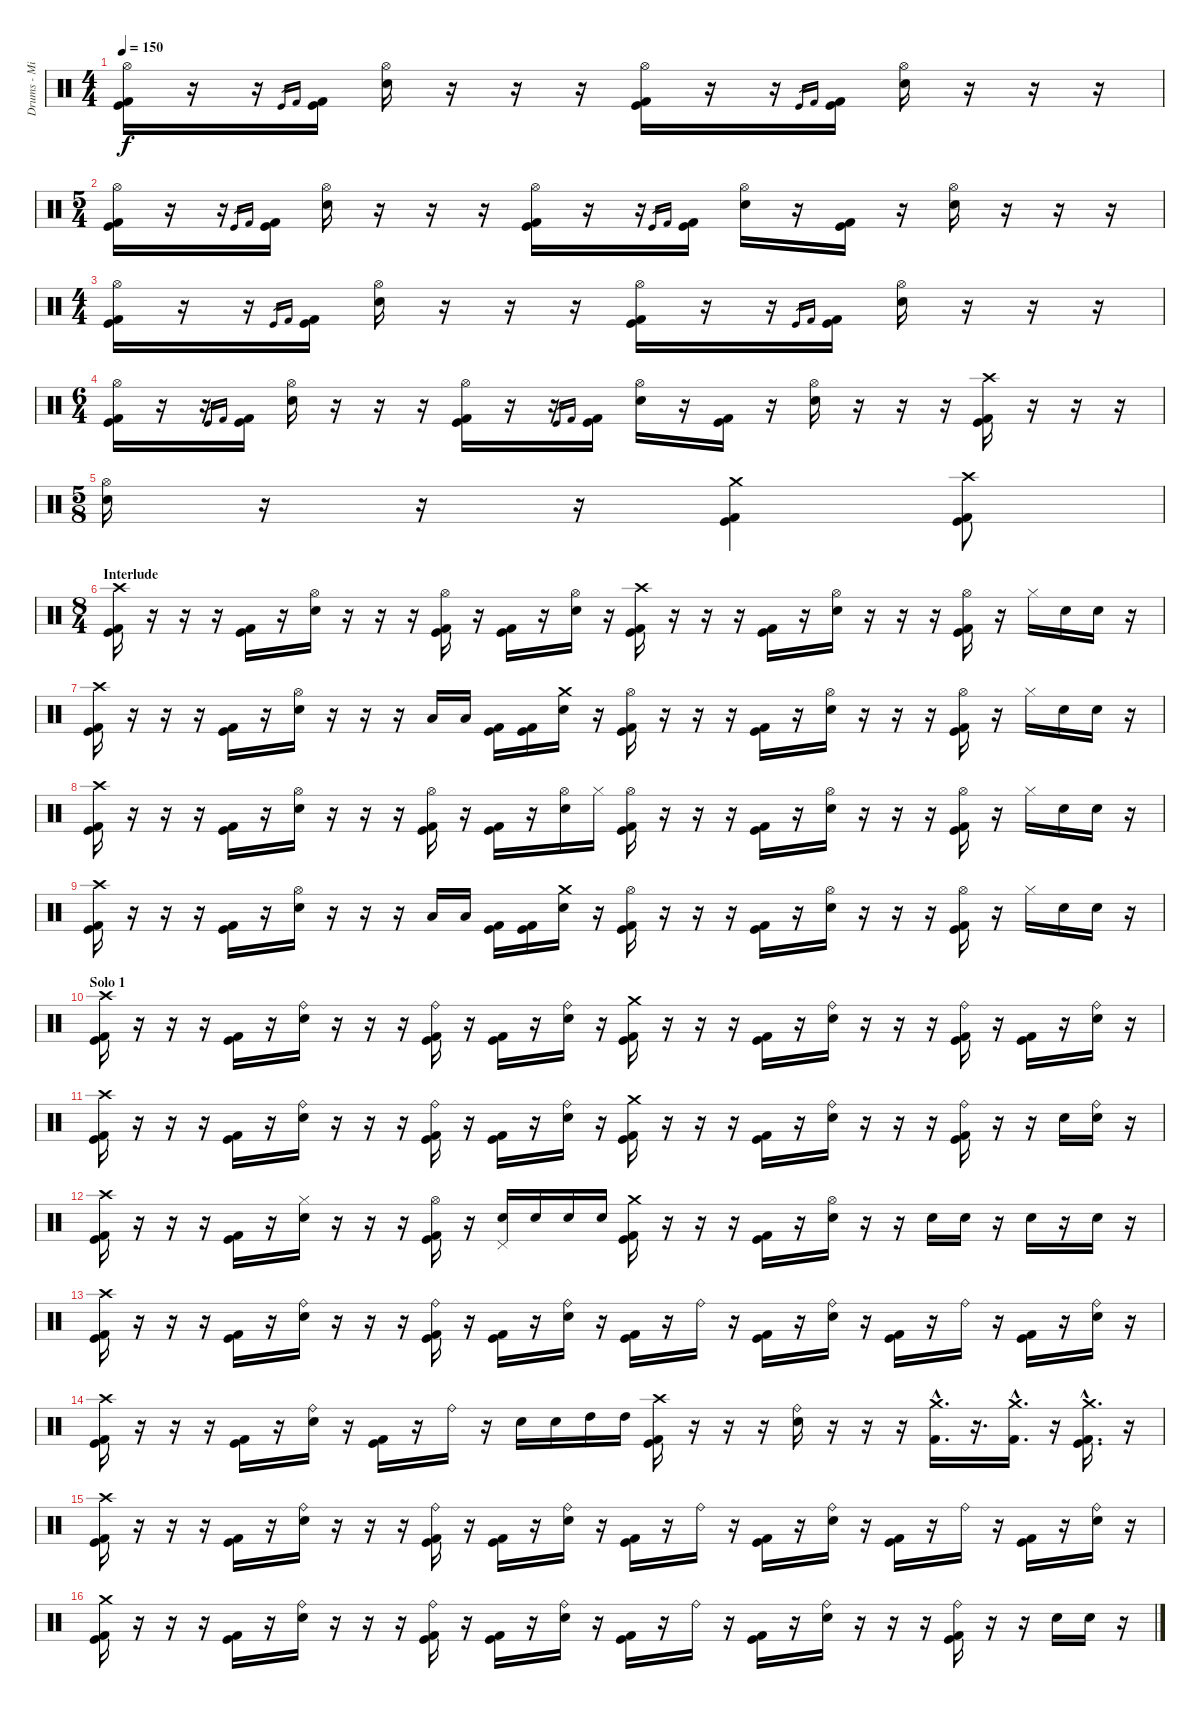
\track ("Drums - Mikkey Dee" "Drums - Mi") {instrument percussion}
\staff {score}
\articulation defaults
\ts (4 4)
\tempo 150
\clef neutral
\ks c
("Hi-Hat (open)" "Kick (hit)" "Kick (hit) 2").16{dy f} r.16 r.16 "Kick (hit)".16{gr} "Kick (hit) 2".16{gr} ("Kick (hit)" "Kick (hit) 2").16 ("Hi-Hat (open)" "Electric Snare (hit)").16 r.16 r.16 r.16 ("Hi-Hat (open)" "Kick (hit)" "Kick (hit) 2").16 r.16 r.16 "Kick (hit)".16{gr} "Kick (hit) 2".16{gr} ("Kick (hit)" "Kick (hit) 2").16 ("Hi-Hat (open)" "Electric Snare (hit)").16 r.16 r.16 r.16 |
\ts (5 4)
("Hi-Hat (open)" "Kick (hit)" "Kick (hit) 2").16 r.16 r.16 "Kick (hit)".16{gr} "Kick (hit) 2".16{gr} ("Kick (hit)" "Kick (hit) 2").16 ("Hi-Hat (open)" "Electric Snare (hit)").16 r.16 r.16 r.16 ("Hi-Hat (open)" "Kick (hit)" "Kick (hit) 2").16 r.16 r.16 "Kick (hit)".16{gr} "Kick (hit) 2".16{gr} ("Kick (hit)" "Kick (hit) 2").16 ("Hi-Hat (open)" "Electric Snare (hit)").16 r.16 ("Kick (hit)" "Kick (hit) 2").16 r.16 ("Hi-Hat (open)" "Electric Snare (hit)").16 r.16 r.16 r.16 |
\ts (4 4)
("Hi-Hat (open)" "Kick (hit)" "Kick (hit) 2").16 r.16 r.16 "Kick (hit)".16{gr} "Kick (hit) 2".16{gr} ("Kick (hit)" "Kick (hit) 2").16 ("Hi-Hat (open)" "Electric Snare (hit)").16 r.16 r.16 r.16 ("Hi-Hat (open)" "Kick (hit)" "Kick (hit) 2").16 r.16 r.16 "Kick (hit)".16{gr} "Kick (hit) 2".16{gr} ("Kick (hit)" "Kick (hit) 2").16 ("Hi-Hat (open)" "Electric Snare (hit)").16 r.16 r.16 r.16 |
\ts (6 4)
("Hi-Hat (open)" "Kick (hit)" "Kick (hit) 2").16 r.16 r.16 "Kick (hit)".16{gr} "Kick (hit) 2".16{gr} ("Kick (hit)" "Kick (hit) 2").16 ("Hi-Hat (open)" "Electric Snare (hit)").16 r.16 r.16 r.16 ("Hi-Hat (open)" "Kick (hit)" "Kick (hit) 2").16 r.16 r.16 "Kick (hit)".16{gr} "Kick (hit) 2".16{gr} ("Kick (hit)" "Kick (hit) 2").16 ("Hi-Hat (open)" "Electric Snare (hit)").16 r.16 ("Kick (hit)" "Kick (hit) 2").16 r.16 ("Hi-Hat (open)" "Electric Snare (hit)").16 r.16 r.16 r.16 ("Crash high (hit)" "Kick (hit)" "Kick (hit) 2").16 r.16 r.16 r.16 |
\ts (5 8)
("Hi-Hat (open)" "Electric Snare (hit)").16 r.16 r.16 r.16 ("Crash medium (hit)" "Kick (hit)" "Kick (hit) 2").4 ("Crash high (hit)" "Kick (hit)" "Kick (hit) 2").8 |
\ts (8 4)
\section ("" "Interlude")
("Crash high (hit)" "Kick (hit)" "Kick (hit) 2").16 r.16 r.16 r.16 ("Kick (hit)" "Kick (hit) 2").16 r.16 ("Hi-Hat (open)" "Electric Snare (hit)").16 r.16 r.16 r.16 ("Hi-Hat (open)" "Kick (hit)" "Kick (hit) 2").16 r.16 ("Kick (hit)" "Kick (hit) 2").16 r.16 ("Hi-Hat (open)" "Electric Snare (hit)").16 r.16 ("Crash high (hit)" "Kick (hit)" "Kick (hit) 2").16 r.16 r.16 r.16 ("Kick (hit)" "Kick (hit) 2").16 r.16 ("Hi-Hat (open)" "Electric Snare (hit)").16 r.16 r.16 r.16 ("Hi-Hat (open)" "Kick (hit)" "Kick (hit) 2").16 r.16 "Hi-Hat (closed)".16 "Electric Snare (hit)".16 "Electric Snare (hit)".16 r.16 |
("Crash high (hit)" "Kick (hit)" "Kick (hit) 2").16 r.16 r.16 r.16 ("Kick (hit)" "Kick (hit) 2").16 r.16 ("Hi-Hat (open)" "Electric Snare (hit)").16 r.16 r.16 r.16 "Low Tom (hit)".16 "Low Tom (hit)".16 ("Kick (hit)" "Kick (hit) 2").16 ("Kick (hit)" "Kick (hit) 2").16 ("Crash medium (hit)" "Electric Snare (hit)").16 r.16 ("Hi-Hat (open)" "Kick (hit)" "Kick (hit) 2").16 r.16 r.16 r.16 ("Kick (hit)" "Kick (hit) 2").16 r.16 ("Hi-Hat (open)" "Electric Snare (hit)").16 r.16 r.16 r.16 ("Hi-Hat (open)" "Kick (hit)" "Kick (hit) 2").16 r.16 "Hi-Hat (closed)".16 "Electric Snare (hit)".16 "Electric Snare (hit)".16 r.16 |
("Crash high (hit)" "Kick (hit)" "Kick (hit) 2").16 r.16 r.16 r.16 ("Kick (hit)" "Kick (hit) 2").16 r.16 ("Hi-Hat (open)" "Electric Snare (hit)").16 r.16 r.16 r.16 ("Hi-Hat (open)" "Kick (hit)" "Kick (hit) 2").16 r.16 ("Kick (hit)" "Kick (hit) 2").16 r.16 ("Hi-Hat (open)" "Electric Snare (hit)").16 "Hi-Hat (closed)".16 ("Hi-Hat (open)" "Kick (hit)" "Kick (hit) 2").16 r.16 r.16 r.16 ("Kick (hit)" "Kick (hit) 2").16 r.16 ("Hi-Hat (open)" "Electric Snare (hit)").16 r.16 r.16 r.16 ("Hi-Hat (open)" "Kick (hit)" "Kick (hit) 2").16 r.16 "Hi-Hat (closed)".16 "Electric Snare (hit)".16 "Electric Snare (hit)".16 r.16 |
("Crash high (hit)" "Kick (hit)" "Kick (hit) 2").16 r.16 r.16 r.16 ("Kick (hit)" "Kick (hit) 2").16 r.16 ("Hi-Hat (open)" "Electric Snare (hit)").16 r.16 r.16 r.16 "Low Tom (hit)".16 "Low Tom (hit)".16 ("Kick (hit)" "Kick (hit) 2").16 ("Kick (hit)" "Kick (hit) 2").16 ("Crash medium (hit)" "Electric Snare (hit)").16 r.16 ("Hi-Hat (open)" "Kick (hit)" "Kick (hit) 2").16 r.16 r.16 r.16 ("Kick (hit)" "Kick (hit) 2").16 r.16 ("Hi-Hat (open)" "Electric Snare (hit)").16 r.16 r.16 r.16 ("Hi-Hat (open)" "Kick (hit)" "Kick (hit) 2").16 r.16 "Hi-Hat (closed)".16 "Electric Snare (hit)".16 "Electric Snare (hit)".16 r.16 |
\section ("" "Solo 1")
("Crash high (hit)" "Kick (hit)" "Kick (hit) 2").16 r.16 r.16 r.16 ("Kick (hit)" "Kick (hit) 2").16 r.16 ("Ride (bell)" "Electric Snare (hit)").16 r.16 r.16 r.16 ("Ride (bell)" "Kick (hit)" "Kick (hit) 2").16 r.16 ("Kick (hit)" "Kick (hit) 2").16 r.16 ("Ride (bell)" "Electric Snare (hit)").16 r.16 ("Crash medium (hit)" "Kick (hit)" "Kick (hit) 2").16 r.16 r.16 r.16 ("Kick (hit)" "Kick (hit) 2").16 r.16 ("Ride (bell)" "Electric Snare (hit)").16 r.16 r.16 r.16 ("Ride (bell)" "Kick (hit)" "Kick (hit) 2").16 r.16 ("Kick (hit)" "Kick (hit) 2").16 r.16 ("Ride (bell)" "Electric Snare (hit)").16 r.16 |
("Crash high (hit)" "Kick (hit)" "Kick (hit) 2").16 r.16 r.16 r.16 ("Kick (hit)" "Kick (hit) 2").16 r.16 ("Ride (bell)" "Electric Snare (hit)").16 r.16 r.16 r.16 ("Ride (bell)" "Kick (hit)" "Kick (hit) 2").16 r.16 ("Kick (hit)" "Kick (hit) 2").16 r.16 ("Ride (bell)" "Electric Snare (hit)").16 r.16 ("Crash medium (hit)" "Kick (hit)" "Kick (hit) 2").16 r.16 r.16 r.16 ("Kick (hit)" "Kick (hit) 2").16 r.16 ("Ride (bell)" "Electric Snare (hit)").16 r.16 r.16 r.16 ("Ride (bell)" "Kick (hit)" "Kick (hit) 2").16 r.16 r.16 "Electric Snare (hit)".16 ("Ride (bell)" "Electric Snare (hit)").16 r.16 |
("Crash high (hit)" "Kick (hit)" "Kick (hit) 2").16 r.16 r.16 r.16 ("Kick (hit)" "Kick (hit) 2").16 r.16 ("Hi-Hat (closed)" "Electric Snare (hit)").16 r.16 r.16 r.16 ("Hi-Hat (open)" "Kick (hit)" "Kick (hit) 2").16 r.16 ("Pedal Hi-Hat (hit)" "Electric Snare (hit)").16 "Electric Snare (hit)".16 "Electric Snare (hit)".16 "Electric Snare (hit)".16 ("Crash medium (hit)" "Kick (hit)" "Kick (hit) 2").16 r.16 r.16 r.16 ("Kick (hit)" "Kick (hit) 2").16 r.16 ("Hi-Hat (open)" "Electric Snare (hit)").16 r.16 r.16 "Electric Snare (hit)".16 "Electric Snare (hit)".16 r.16 "Electric Snare (hit)".16 r.16 "Electric Snare (hit)".16 r.16 |
("Crash high (hit)" "Kick (hit)" "Kick (hit) 2").16 r.16 r.16 r.16 ("Kick (hit)" "Kick (hit) 2").16 r.16 ("Ride (bell)" "Electric Snare (hit)").16 r.16 r.16 r.16 ("Ride (bell)" "Kick (hit)" "Kick (hit) 2").16 r.16 ("Kick (hit)" "Kick (hit) 2").16 r.16 ("Ride (bell)" "Electric Snare (hit)").16 r.16 ("Kick (hit)" "Kick (hit) 2").16 r.16 "Ride (bell)".16 r.16 ("Kick (hit)" "Kick (hit) 2").16 r.16 ("Ride (bell)" "Electric Snare (hit)").16 r.16 ("Kick (hit)" "Kick (hit) 2").16 r.16 "Ride (bell)".16 r.16 ("Kick (hit)" "Kick (hit) 2").16 r.16 ("Ride (bell)" "Electric Snare (hit)").16 r.16 |
("Crash high (hit)" "Kick (hit)" "Kick (hit) 2").16 r.16 r.16 r.16 ("Kick (hit)" "Kick (hit) 2").16 r.16 ("Ride (bell)" "Electric Snare (hit)").16 r.16 ("Kick (hit)" "Kick (hit) 2").16 r.16 "Ride (bell)".16 r.16 "Electric Snare (hit)".16 "Electric Snare (hit)".16 "High Tom (hit)".16 "High Tom (hit)".16 ("Crash high (hit)" "Kick (hit)" "Kick (hit) 2").16 r.16 r.16 r.16 ("Ride (bell)" "Electric Snare (hit)").16 r.16 r.16 r.16 ("Crash medium (hit)"{hac} "Kick (hit) 2"{hac}).16{d} r.16{d} ("Crash medium (hit)"{hac} "Kick (hit) 2"{hac}).16{d} r.16 ("Crash medium (hit)"{hac} "Kick (hit)"{hac} "Kick (hit) 2"{hac}).16{d} r.16 |
("Crash high (hit)" "Kick (hit)" "Kick (hit) 2").16 r.16 r.16 r.16 ("Kick (hit)" "Kick (hit) 2").16 r.16 ("Ride (bell)" "Electric Snare (hit)").16 r.16 r.16 r.16 ("Ride (bell)" "Kick (hit)" "Kick (hit) 2").16 r.16 ("Kick (hit)" "Kick (hit) 2").16 r.16 ("Ride (bell)" "Electric Snare (hit)").16 r.16 ("Kick (hit)" "Kick (hit) 2").16 r.16 "Ride (bell)".16 r.16 ("Kick (hit)" "Kick (hit) 2").16 r.16 ("Ride (bell)" "Electric Snare (hit)").16 r.16 ("Kick (hit)" "Kick (hit) 2").16 r.16 "Ride (bell)".16 r.16 ("Kick (hit)" "Kick (hit) 2").16 r.16 ("Ride (bell)" "Electric Snare (hit)").16 r.16 |
("Crash medium (hit)" "Kick (hit)" "Kick (hit) 2").16 r.16 r.16 r.16 ("Kick (hit)" "Kick (hit) 2").16 r.16 ("Ride (bell)" "Electric Snare (hit)").16 r.16 r.16 r.16 ("Ride (bell)" "Kick (hit)" "Kick (hit) 2").16 r.16 ("Kick (hit)" "Kick (hit) 2").16 r.16 ("Ride (bell)" "Electric Snare (hit)").16 r.16 ("Kick (hit)" "Kick (hit) 2").16 r.16 "Ride (bell)".16 r.16 ("Kick (hit)" "Kick (hit) 2").16 r.16 ("Ride (bell)" "Electric Snare (hit)").16 r.16 r.16 r.16 ("Ride (bell)" "Kick (hit)" "Kick (hit) 2").16 r.16 r.16 "Electric Snare (hit)".16 "Electric Snare (hit)".16 r.16
